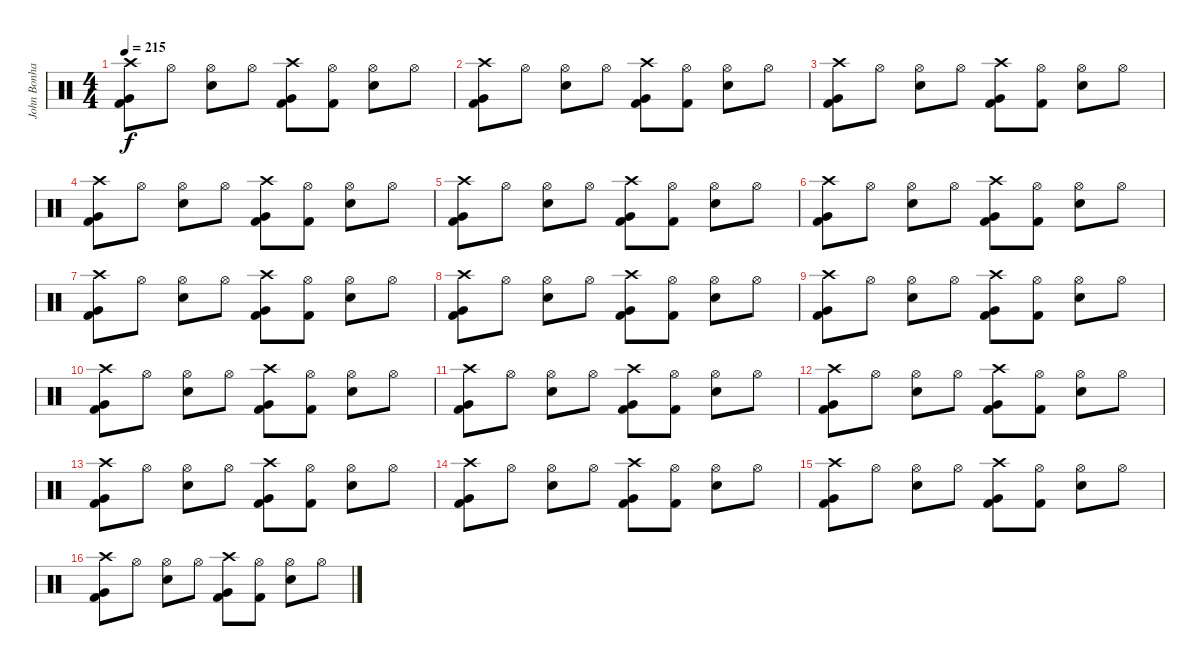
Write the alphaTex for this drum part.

\track ("John Bonham" "John Bonha") {instrument percussion}
\staff {score}
\articulation defaults
\ts (4 4)
\tempo 215
\clef neutral
\ks c
("Crash high (hit)" "Very Low Tom (hit)" "Kick (hit) 2").8{dy f} "Hi-Hat (open)".8 ("Hi-Hat (open)" "Snare (hit) 2").8 "Hi-Hat (open)".8 ("Crash high (hit)" "Very Low Tom (hit)" "Kick (hit) 2").8 ("Hi-Hat (open)" "Kick (hit) 2").8 ("Hi-Hat (open)" "Snare (hit) 2").8 "Hi-Hat (open)".8 |
("Crash high (hit)" "Very Low Tom (hit)" "Kick (hit) 2").8 "Hi-Hat (open)".8 ("Hi-Hat (open)" "Snare (hit) 2").8 "Hi-Hat (open)".8 ("Crash high (hit)" "Very Low Tom (hit)" "Kick (hit) 2").8 ("Hi-Hat (open)" "Kick (hit) 2").8 ("Hi-Hat (open)" "Snare (hit) 2").8 "Hi-Hat (open)".8 |
("Crash high (hit)" "Very Low Tom (hit)" "Kick (hit) 2").8 "Hi-Hat (open)".8 ("Hi-Hat (open)" "Snare (hit) 2").8 "Hi-Hat (open)".8 ("Crash high (hit)" "Very Low Tom (hit)" "Kick (hit) 2").8 ("Hi-Hat (open)" "Kick (hit) 2").8 ("Hi-Hat (open)" "Snare (hit) 2").8 "Hi-Hat (open)".8 |
("Crash high (hit)" "Very Low Tom (hit)" "Kick (hit) 2").8 "Hi-Hat (open)".8 ("Hi-Hat (open)" "Snare (hit) 2").8 "Hi-Hat (open)".8 ("Crash high (hit)" "Very Low Tom (hit)" "Kick (hit) 2").8 ("Hi-Hat (open)" "Kick (hit) 2").8 ("Hi-Hat (open)" "Snare (hit) 2").8 "Hi-Hat (open)".8 |
("Crash high (hit)" "Very Low Tom (hit)" "Kick (hit) 2").8 "Hi-Hat (open)".8 ("Hi-Hat (open)" "Snare (hit) 2").8 "Hi-Hat (open)".8 ("Crash high (hit)" "Very Low Tom (hit)" "Kick (hit) 2").8 ("Hi-Hat (open)" "Kick (hit) 2").8 ("Hi-Hat (open)" "Snare (hit) 2").8 "Hi-Hat (open)".8 |
("Crash high (hit)" "Very Low Tom (hit)" "Kick (hit) 2").8 "Hi-Hat (open)".8 ("Hi-Hat (open)" "Snare (hit) 2").8 "Hi-Hat (open)".8 ("Crash high (hit)" "Very Low Tom (hit)" "Kick (hit) 2").8 ("Hi-Hat (open)" "Kick (hit) 2").8 ("Hi-Hat (open)" "Snare (hit) 2").8 "Hi-Hat (open)".8 |
("Crash high (hit)" "Very Low Tom (hit)" "Kick (hit) 2").8 "Hi-Hat (open)".8 ("Hi-Hat (open)" "Snare (hit) 2").8 "Hi-Hat (open)".8 ("Crash high (hit)" "Very Low Tom (hit)" "Kick (hit) 2").8 ("Hi-Hat (open)" "Kick (hit) 2").8 ("Hi-Hat (open)" "Snare (hit) 2").8 "Hi-Hat (open)".8 |
("Crash high (hit)" "Very Low Tom (hit)" "Kick (hit) 2").8 "Hi-Hat (open)".8 ("Hi-Hat (open)" "Snare (hit) 2").8 "Hi-Hat (open)".8 ("Crash high (hit)" "Very Low Tom (hit)" "Kick (hit) 2").8 ("Hi-Hat (open)" "Kick (hit) 2").8 ("Hi-Hat (open)" "Snare (hit) 2").8 "Hi-Hat (open)".8 |
("Crash high (hit)" "Very Low Tom (hit)" "Kick (hit) 2").8 "Hi-Hat (open)".8 ("Hi-Hat (open)" "Snare (hit) 2").8 "Hi-Hat (open)".8 ("Crash high (hit)" "Very Low Tom (hit)" "Kick (hit) 2").8 ("Hi-Hat (open)" "Kick (hit) 2").8 ("Hi-Hat (open)" "Snare (hit) 2").8 "Hi-Hat (open)".8 |
("Crash high (hit)" "Very Low Tom (hit)" "Kick (hit) 2").8 "Hi-Hat (open)".8 ("Hi-Hat (open)" "Snare (hit) 2").8 "Hi-Hat (open)".8 ("Crash high (hit)" "Very Low Tom (hit)" "Kick (hit) 2").8 ("Hi-Hat (open)" "Kick (hit) 2").8 ("Hi-Hat (open)" "Snare (hit) 2").8 "Hi-Hat (open)".8 |
("Crash high (hit)" "Very Low Tom (hit)" "Kick (hit) 2").8 "Hi-Hat (open)".8 ("Hi-Hat (open)" "Snare (hit) 2").8 "Hi-Hat (open)".8 ("Crash high (hit)" "Very Low Tom (hit)" "Kick (hit) 2").8 ("Hi-Hat (open)" "Kick (hit) 2").8 ("Hi-Hat (open)" "Snare (hit) 2").8 "Hi-Hat (open)".8 |
("Crash high (hit)" "Very Low Tom (hit)" "Kick (hit) 2").8 "Hi-Hat (open)".8 ("Hi-Hat (open)" "Snare (hit) 2").8 "Hi-Hat (open)".8 ("Crash high (hit)" "Very Low Tom (hit)" "Kick (hit) 2").8 ("Hi-Hat (open)" "Kick (hit) 2").8 ("Hi-Hat (open)" "Snare (hit) 2").8 "Hi-Hat (open)".8 |
("Crash high (hit)" "Very Low Tom (hit)" "Kick (hit) 2").8 "Hi-Hat (open)".8 ("Hi-Hat (open)" "Snare (hit) 2").8 "Hi-Hat (open)".8 ("Crash high (hit)" "Very Low Tom (hit)" "Kick (hit) 2").8 ("Hi-Hat (open)" "Kick (hit) 2").8 ("Hi-Hat (open)" "Snare (hit) 2").8 "Hi-Hat (open)".8 |
("Crash high (hit)" "Very Low Tom (hit)" "Kick (hit) 2").8 "Hi-Hat (open)".8 ("Hi-Hat (open)" "Snare (hit) 2").8 "Hi-Hat (open)".8 ("Crash high (hit)" "Very Low Tom (hit)" "Kick (hit) 2").8 ("Hi-Hat (open)" "Kick (hit) 2").8 ("Hi-Hat (open)" "Snare (hit) 2").8 "Hi-Hat (open)".8 |
("Crash high (hit)" "Very Low Tom (hit)" "Kick (hit) 2").8 "Hi-Hat (open)".8 ("Hi-Hat (open)" "Snare (hit) 2").8 "Hi-Hat (open)".8 ("Crash high (hit)" "Very Low Tom (hit)" "Kick (hit) 2").8 ("Hi-Hat (open)" "Kick (hit) 2").8 ("Hi-Hat (open)" "Snare (hit) 2").8 "Hi-Hat (open)".8 |
("Crash high (hit)" "Very Low Tom (hit)" "Kick (hit) 2").8 "Hi-Hat (open)".8 ("Hi-Hat (open)" "Snare (hit) 2").8 "Hi-Hat (open)".8 ("Crash high (hit)" "Very Low Tom (hit)" "Kick (hit) 2").8 ("Hi-Hat (open)" "Kick (hit) 2").8 ("Hi-Hat (open)" "Snare (hit) 2").8 "Hi-Hat (open)".8
